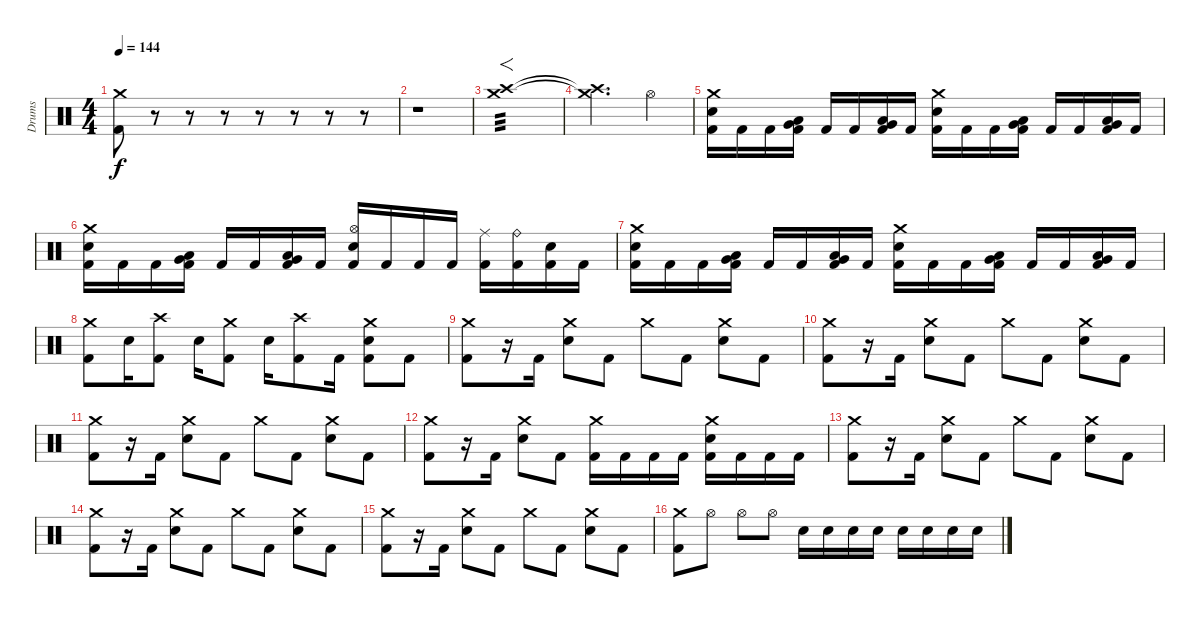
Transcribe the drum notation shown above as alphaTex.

\track ("Drums" "Drums") {instrument percussion}
\staff {score}
\articulation defaults
\ts (4 4)
\tempo 144
\clef neutral
\ks c
("Crash medium (hit)" "Kick (hit) 2").8{dy f} r.8 r.8 r.8 r.8 r.8 r.8 r.8 |
r.1 |
("Crash medium (hit)" "Crash high (hit)").1{f tp 3} |
("Crash medium (hit)"{t} "Crash high (hit)"{t}).2{d} "Hi-Hat (open)".4 |
("Crash medium (hit)" "Electric Snare (hit)" "Kick (hit) 2").16 "Kick (hit) 2".16 "Kick (hit) 2".16 ("Very Low Tom (hit)" "Low Tom (hit)" "Kick (hit) 2").16 "Kick (hit) 2".16 "Kick (hit) 2".16 ("Low Floor Tom (hit)" "Very Low Tom (hit)" "Kick (hit) 2").16 "Kick (hit) 2".16 ("Crash medium (hit)" "Electric Snare (hit)" "Kick (hit) 2").16 "Kick (hit) 2".16 "Kick (hit) 2".16 ("Very Low Tom (hit)" "Low Tom (hit)" "Kick (hit) 2").16 "Kick (hit) 2".16 "Kick (hit) 2".16 ("Low Floor Tom (hit)" "Very Low Tom (hit)" "Kick (hit) 2").16 "Kick (hit) 2".16 |
("Crash medium (hit)" "Electric Snare (hit)" "Kick (hit) 2").16 "Kick (hit) 2".16 "Kick (hit) 2".16 ("Very Low Tom (hit)" "Low Tom (hit)" "Kick (hit) 2").16 "Kick (hit) 2".16 "Kick (hit) 2".16 ("Low Floor Tom (hit)" "Very Low Tom (hit)" "Kick (hit) 2").16 "Kick (hit) 2".16 ("Hi-Hat (open)" "Electric Snare (hit)" "Kick (hit) 2").16 "Kick (hit) 2".16 "Kick (hit) 2".16 "Kick (hit) 2".16 ("Ride (middle)" "Kick (hit) 2").16 ("Ride (bell)" "Kick (hit) 2").16 ("Electric Snare (hit)" "Kick (hit) 2").16 "Kick (hit) 2".16 |
("Crash medium (hit)" "Electric Snare (hit)" "Kick (hit) 2").16 "Kick (hit) 2".16 "Kick (hit) 2".16 ("Very Low Tom (hit)" "Low Tom (hit)" "Kick (hit) 2").16 "Kick (hit) 2".16 "Kick (hit) 2".16 ("Low Floor Tom (hit)" "Very Low Tom (hit)" "Kick (hit) 2").16 "Kick (hit) 2".16 ("Crash medium (hit)" "Electric Snare (hit)" "Kick (hit) 2").16 "Kick (hit) 2".16 "Kick (hit) 2".16 ("Very Low Tom (hit)" "Low Tom (hit)" "Kick (hit) 2").16 "Kick (hit) 2".16 "Kick (hit) 2".16 ("Low Floor Tom (hit)" "Very Low Tom (hit)" "Kick (hit) 2").16 "Kick (hit) 2".16 |
("Crash medium (hit)" "Kick (hit) 2").8 "Electric Snare (hit)".16 ("Crash high (hit)" "Kick (hit) 2").8 "Electric Snare (hit)".16 ("Crash medium (hit)" "Kick (hit) 2").8 "Electric Snare (hit)".16 ("Crash high (hit)" "Kick (hit) 2").8 "Kick (hit) 2".16 ("Crash medium (hit)" "Electric Snare (hit)" "Kick (hit) 2").8 "Kick (hit) 2".8 |
("Crash medium (hit)" "Kick (hit) 2").8 r.16 "Kick (hit) 2".16 ("Crash medium (hit)" "Electric Snare (hit)").8 "Kick (hit) 2".8 "Crash medium (hit)".8 "Kick (hit) 2".8 ("Crash medium (hit)" "Electric Snare (hit)").8 "Kick (hit) 2".8 |
("Crash medium (hit)" "Kick (hit) 2").8 r.16 "Kick (hit) 2".16 ("Crash medium (hit)" "Electric Snare (hit)").8 "Kick (hit) 2".8 "Crash medium (hit)".8 "Kick (hit) 2".8 ("Crash medium (hit)" "Electric Snare (hit)").8 "Kick (hit) 2".8 |
("Crash medium (hit)" "Kick (hit) 2").8 r.16 "Kick (hit) 2".16 ("Crash medium (hit)" "Electric Snare (hit)").8 "Kick (hit) 2".8 "Crash medium (hit)".8 "Kick (hit) 2".8 ("Crash medium (hit)" "Electric Snare (hit)").8 "Kick (hit) 2".8 |
("Crash medium (hit)" "Kick (hit) 2").8 r.16 "Kick (hit) 2".16 ("Crash medium (hit)" "Electric Snare (hit)").8 "Kick (hit) 2".8 ("Crash medium (hit)" "Kick (hit) 2").16 "Kick (hit) 2".16 "Kick (hit) 2".16 "Kick (hit) 2".16 ("Crash medium (hit)" "Electric Snare (hit)" "Kick (hit) 2").16 "Kick (hit) 2".16 "Kick (hit) 2".16 "Kick (hit) 2".16 |
("Crash medium (hit)" "Kick (hit) 2").8 r.16 "Kick (hit) 2".16 ("Crash medium (hit)" "Electric Snare (hit)").8 "Kick (hit) 2".8 "Crash medium (hit)".8 "Kick (hit) 2".8 ("Crash medium (hit)" "Electric Snare (hit)").8 "Kick (hit) 2".8 |
("Crash medium (hit)" "Kick (hit) 2").8 r.16 "Kick (hit) 2".16 ("Crash medium (hit)" "Electric Snare (hit)").8 "Kick (hit) 2".8 "Crash medium (hit)".8 "Kick (hit) 2".8 ("Crash medium (hit)" "Electric Snare (hit)").8 "Kick (hit) 2".8 |
("Crash medium (hit)" "Kick (hit) 2").8 r.16 "Kick (hit) 2".16 ("Crash medium (hit)" "Electric Snare (hit)").8 "Kick (hit) 2".8 "Crash medium (hit)".8 "Kick (hit) 2".8 ("Crash medium (hit)" "Electric Snare (hit)").8 "Kick (hit) 2".8 |
("Crash medium (hit)" "Kick (hit) 2").8 "Hi-Hat (open)".8 "Hi-Hat (open)".8 "Hi-Hat (open)".8 "Electric Snare (hit)".16 "Electric Snare (hit)".16 "Electric Snare (hit)".16 "Electric Snare (hit)".16 "Electric Snare (hit)".16 "Electric Snare (hit)".16 "Electric Snare (hit)".16 "Electric Snare (hit)".16
